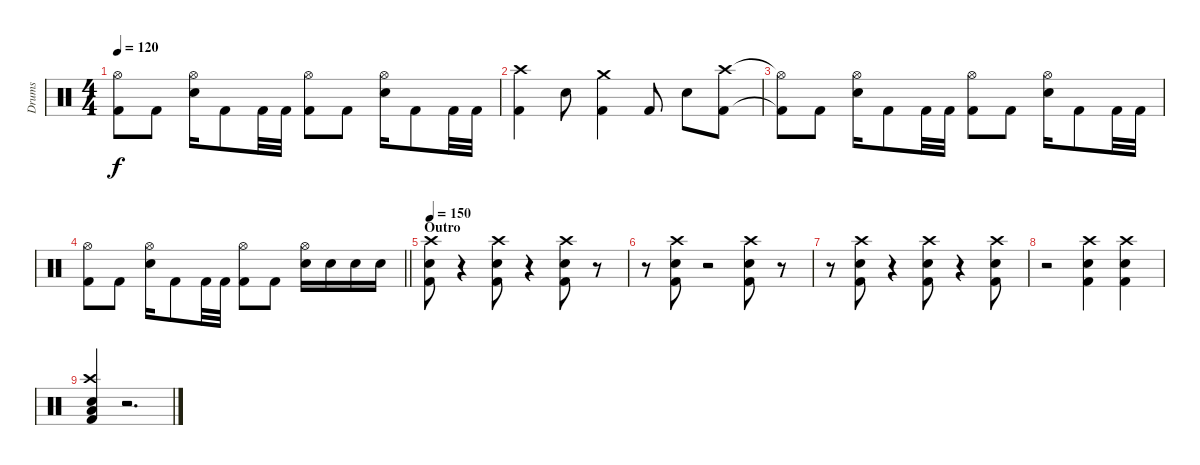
\track ("Drums" "Drums") {instrument percussion}
\staff {score}
\articulation defaults
\ts (4 4)
\tempo 120
\clef neutral
\ks c
("Hi-Hat (open)" "Kick (hit) 2").8{dy f} "Kick (hit) 2".8 ("Hi-Hat (open)" "Snare (hit) 2").16 "Kick (hit) 2".8 "Kick (hit) 2".32 "Kick (hit) 2".32 ("Hi-Hat (open)" "Kick (hit) 2").8 "Kick (hit) 2".8 ("Hi-Hat (open)" "Snare (hit) 2").16 "Kick (hit) 2".8 "Kick (hit) 2".32 "Kick (hit) 2".32 |
("Crash high (hit)" "Kick (hit) 2").4 "Snare (hit) 2".8 ("Crash medium (hit)" "Kick (hit) 2").4 "Kick (hit) 2".8 "Snare (hit) 2".8 ("Crash high (hit)" "Kick (hit) 2").8 |
("Hi-Hat (open)"{t} "Kick (hit) 2"{t}).8 "Kick (hit) 2".8 ("Hi-Hat (open)" "Snare (hit) 2").16 "Kick (hit) 2".8 "Kick (hit) 2".32 "Kick (hit) 2".32 ("Hi-Hat (open)" "Kick (hit) 2").8 "Kick (hit) 2".8 ("Hi-Hat (open)" "Snare (hit) 2").16 "Kick (hit) 2".8 "Kick (hit) 2".32 "Kick (hit) 2".32 |
\barLineRight lightlight
("Hi-Hat (open)" "Kick (hit) 2").8 "Kick (hit) 2".8 ("Hi-Hat (open)" "Snare (hit) 2").16 "Kick (hit) 2".8 "Kick (hit) 2".32 "Kick (hit) 2".32 ("Hi-Hat (open)" "Kick (hit) 2").8 "Kick (hit) 2".8 ("Hi-Hat (open)" "Snare (hit) 2").16 "Electric Snare (hit)".16 "Electric Snare (hit)".16 "Electric Snare (hit)".16 |
\section ("" "Outro")
\tempo 150
("Crash high (hit)" "Snare (hit) 2" "Kick (hit) 2").8 r.4 ("Crash high (hit)" "Snare (hit) 2" "Kick (hit) 2").8 r.4 ("Crash high (hit)" "Snare (hit) 2" "Kick (hit) 2").8 r.8 |
r.8 ("Crash high (hit)" "Snare (hit) 2" "Kick (hit) 2").8 r.2 ("Crash high (hit)" "Snare (hit) 2" "Kick (hit) 2").8 r.8 |
r.8 ("Crash high (hit)" "Snare (hit) 2" "Kick (hit) 2").8 r.4 ("Crash high (hit)" "Snare (hit) 2" "Kick (hit) 2").8 r.4 ("Crash high (hit)" "Snare (hit) 2" "Kick (hit) 2").8 |
r.2 ("Crash high (hit)" "Snare (hit) 2" "Kick (hit) 2").4 ("Crash high (hit)" "Snare (hit) 2" "Kick (hit) 2").4 |
("Crash high (hit)" "Snare (hit) 2" "Low Floor Tom (hit)" "Kick (hit) 2").4 r.2{d}
